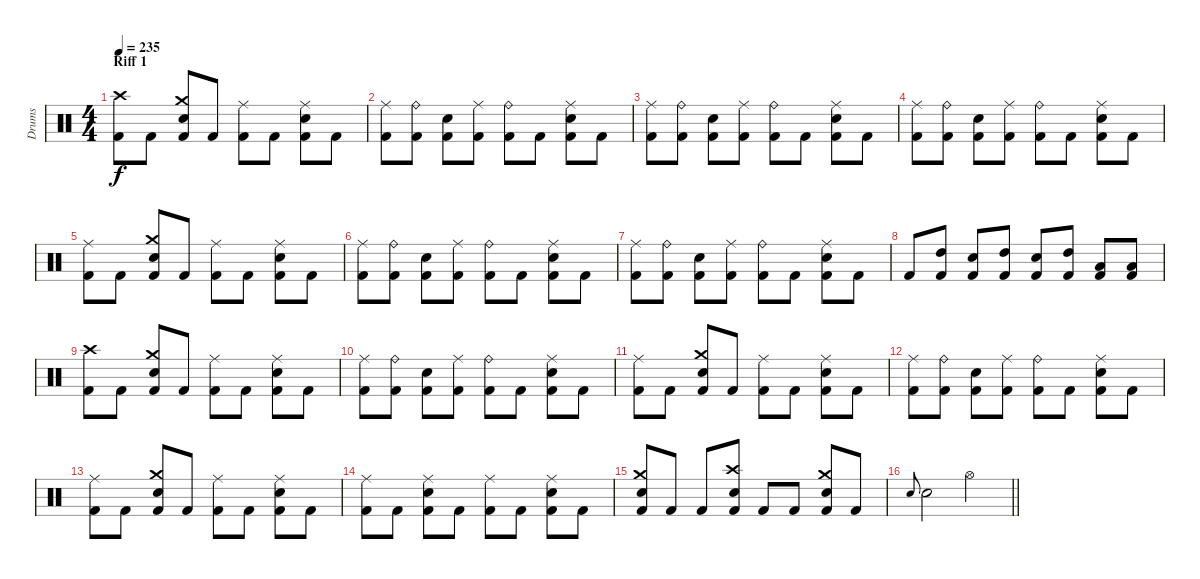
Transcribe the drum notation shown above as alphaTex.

\track ("Drums" "Drums") {instrument percussion}
\staff {score}
\articulation defaults
\ts (4 4)
\section ("" "Riff 1")
\tempo 235
\clef neutral
\ks aminor
("Kick (hit) 2" "Crash high (hit)").8{dy f} "Kick (hit) 2".8 ("Kick (hit) 2" "Crash medium (hit)" "Electric Snare (hit)").8 "Kick (hit) 2".8 ("Kick (hit) 2" "Ride (middle)").8 "Kick (hit) 2".8 ("Kick (hit) 2" "Electric Snare (hit)" "Ride (middle)").8 "Kick (hit) 2".8 |
("Kick (hit) 2" "Ride (middle)").8 ("Kick (hit) 2" "Ride (bell)").8 ("Kick (hit) 2" "Electric Snare (hit)").8 ("Kick (hit) 2" "Ride (middle)").8 ("Kick (hit) 2" "Ride (bell)").8 "Kick (hit) 2".8 ("Kick (hit) 2" "Electric Snare (hit)" "Ride (middle)").8 "Kick (hit) 2".8 |
("Kick (hit) 2" "Ride (middle)").8 ("Kick (hit) 2" "Ride (bell)").8 ("Kick (hit) 2" "Electric Snare (hit)").8 ("Kick (hit) 2" "Ride (middle)").8 ("Kick (hit) 2" "Ride (bell)").8 "Kick (hit) 2".8 ("Kick (hit) 2" "Electric Snare (hit)" "Ride (middle)").8 "Kick (hit) 2".8 |
("Kick (hit) 2" "Ride (middle)").8 ("Kick (hit) 2" "Ride (bell)").8 ("Kick (hit) 2" "Electric Snare (hit)").8 ("Kick (hit) 2" "Ride (middle)").8 ("Kick (hit) 2" "Ride (bell)").8 "Kick (hit) 2".8 ("Kick (hit) 2" "Electric Snare (hit)" "Ride (middle)").8 "Kick (hit) 2".8 |
("Ride (middle)" "Kick (hit) 2").8 "Kick (hit) 2".8 ("Crash medium (hit)" "Electric Snare (hit)" "Kick (hit) 2").8 "Kick (hit) 2".8 ("Ride (middle)" "Kick (hit) 2").8 "Kick (hit) 2".8 ("Ride (middle)" "Electric Snare (hit)" "Kick (hit) 2").8 "Kick (hit) 2".8 |
("Kick (hit) 2" "Ride (middle)").8 ("Kick (hit) 2" "Ride (bell)").8 ("Kick (hit) 2" "Electric Snare (hit)").8 ("Kick (hit) 2" "Ride (middle)").8 ("Kick (hit) 2" "Ride (bell)").8 "Kick (hit) 2".8 ("Kick (hit) 2" "Electric Snare (hit)" "Ride (middle)").8 "Kick (hit) 2".8 |
("Kick (hit) 2" "Ride (middle)").8 ("Kick (hit) 2" "Ride (bell)").8 ("Kick (hit) 2" "Electric Snare (hit)").8 ("Kick (hit) 2" "Ride (middle)").8 ("Kick (hit) 2" "Ride (bell)").8 "Kick (hit) 2".8 ("Kick (hit) 2" "Electric Snare (hit)" "Ride (middle)").8 "Kick (hit) 2".8 |
"Kick (hit) 2".8 ("High Tom (hit)" "Kick (hit) 2").8 ("Electric Snare (hit)" "Kick (hit) 2").8 ("High Tom (hit)" "Kick (hit) 2").8 ("Electric Snare (hit)" "Kick (hit) 2").8 ("High Tom (hit)" "Kick (hit) 2").8 ("Low Tom (hit)" "Kick (hit) 2").8 ("Low Tom (hit)" "Kick (hit) 2").8 |
("Kick (hit) 2" "Crash high (hit)").8 "Kick (hit) 2".8 ("Kick (hit) 2" "Crash medium (hit)" "Electric Snare (hit)").8 "Kick (hit) 2".8 ("Kick (hit) 2" "Ride (middle)").8 "Kick (hit) 2".8 ("Kick (hit) 2" "Electric Snare (hit)" "Ride (middle)").8 "Kick (hit) 2".8 |
("Kick (hit) 2" "Ride (middle)").8 ("Kick (hit) 2" "Ride (bell)").8 ("Kick (hit) 2" "Electric Snare (hit)").8 ("Kick (hit) 2" "Ride (middle)").8 ("Kick (hit) 2" "Ride (bell)").8 "Kick (hit) 2".8 ("Kick (hit) 2" "Electric Snare (hit)" "Ride (middle)").8 "Kick (hit) 2".8 |
("Kick (hit) 2" "Ride (middle)").8 "Kick (hit) 2".8 ("Kick (hit) 2" "Crash medium (hit)" "Electric Snare (hit)").8 "Kick (hit) 2".8 ("Kick (hit) 2" "Ride (middle)").8 "Kick (hit) 2".8 ("Kick (hit) 2" "Electric Snare (hit)" "Ride (middle)").8 "Kick (hit) 2".8 |
("Kick (hit) 2" "Ride (middle)").8 ("Kick (hit) 2" "Ride (bell)").8 ("Kick (hit) 2" "Electric Snare (hit)").8 ("Kick (hit) 2" "Ride (middle)").8 ("Kick (hit) 2" "Ride (bell)").8 "Kick (hit) 2".8 ("Kick (hit) 2" "Electric Snare (hit)" "Ride (middle)").8 "Kick (hit) 2".8 |
("Ride (middle)" "Kick (hit) 2").8 "Kick (hit) 2".8 ("Crash medium (hit)" "Electric Snare (hit)" "Kick (hit) 2").8 "Kick (hit) 2".8 ("Ride (middle)" "Kick (hit) 2").8 "Kick (hit) 2".8 ("Ride (middle)" "Electric Snare (hit)" "Kick (hit) 2").8 "Kick (hit) 2".8 |
("Ride (middle)" "Kick (hit) 2").8 "Kick (hit) 2".8 ("Ride (middle)" "Electric Snare (hit)" "Kick (hit) 2").8 "Kick (hit) 2".8 ("Ride (middle)" "Kick (hit) 2").8 "Kick (hit) 2".8 ("Ride (middle)" "Electric Snare (hit)" "Kick (hit) 2").8 "Kick (hit) 2".8 |
("Electric Snare (hit)" "Crash medium (hit)" "Kick (hit) 2").8 "Kick (hit) 2".8 "Kick (hit) 2".8 ("Electric Snare (hit)" "Crash high (hit)" "Kick (hit) 2").8 "Kick (hit) 2".8 "Kick (hit) 2".8 ("Crash medium (hit)" "Electric Snare (hit)" "Kick (hit) 2").8 "Kick (hit) 2".8 |
\barLineRight lightlight "Electric Snare (hit)".8{gr onbeat} "Electric Snare (hit)".2 "Hi-Hat (open)".2
